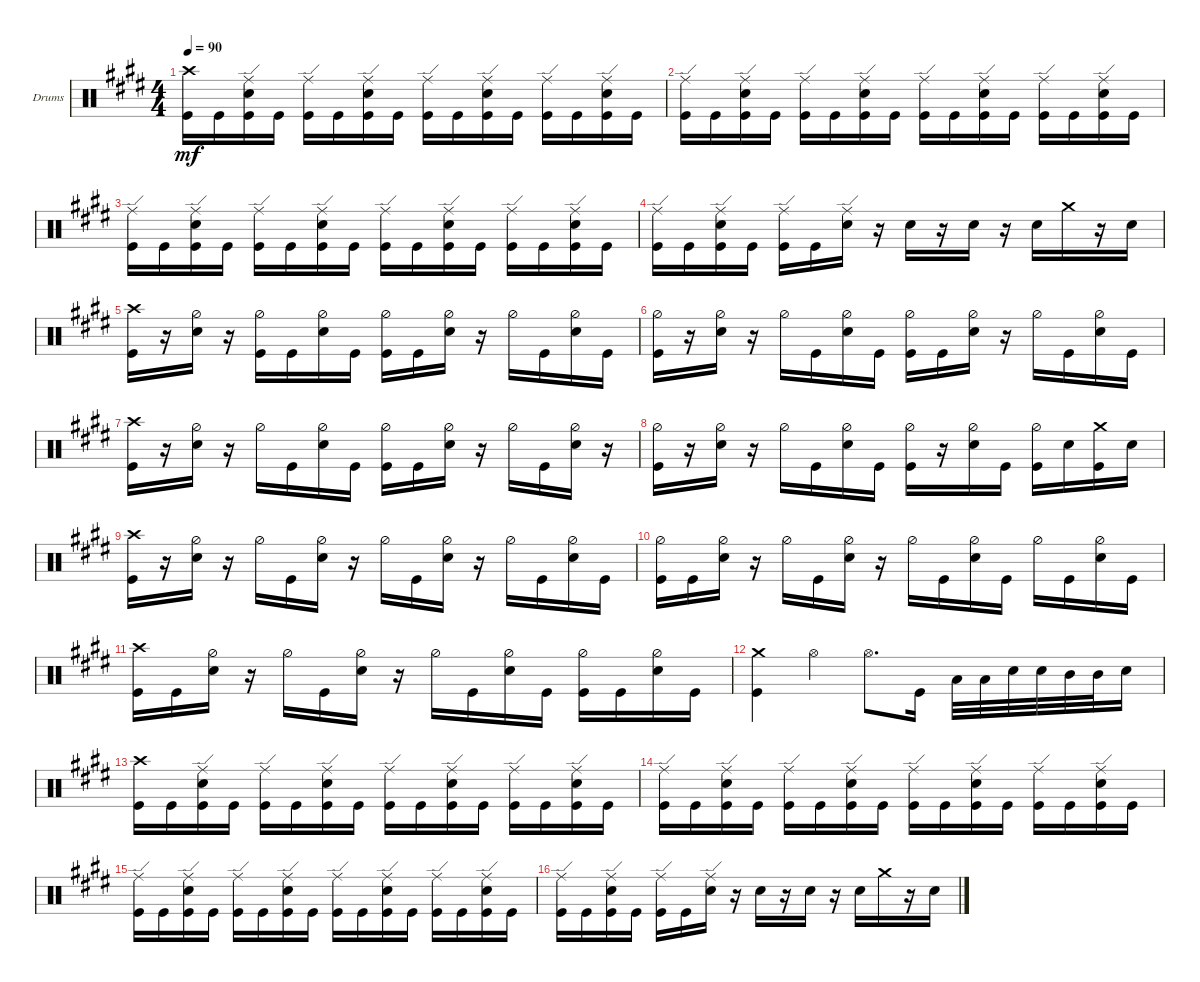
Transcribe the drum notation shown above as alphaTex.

\defaultSystemsLayout 4
\bracketExtendMode groupsimilarinstruments
\firstSystemTrackNameOrientation horizontal
\otherSystemsTrackNameOrientation horizontal
\track ("Drumkit" "Drums") {instrument percussion}
\staff {score}
\articulation defaults
\ts (4 4)
\tempo 90
\clef neutral
\ks e
("Kick (hit)" "Crash high (hit)").16{dy mf} "Kick (hit)".16 ("Snare (hit) 2" "Ride (edge)" "Kick (hit)").16 "Kick (hit)".16 ("Kick (hit)" "Ride (edge)").16 "Kick (hit)".16 ("Snare (hit) 2" "Ride (edge)" "Kick (hit)").16 "Kick (hit)".16 ("Kick (hit)" "Ride (edge)").16 "Kick (hit)".16 ("Snare (hit) 2" "Ride (edge)" "Kick (hit)").16 "Kick (hit)".16 ("Kick (hit)" "Ride (edge)").16 "Kick (hit)".16 ("Snare (hit) 2" "Ride (edge)" "Kick (hit)").16 "Kick (hit)".16 |
("Kick (hit)" "Ride (edge)").16 "Kick (hit)".16 ("Snare (hit) 2" "Ride (edge)" "Kick (hit)").16 "Kick (hit)".16 ("Kick (hit)" "Ride (edge)").16 "Kick (hit)".16 ("Snare (hit) 2" "Ride (edge)" "Kick (hit)").16 "Kick (hit)".16 ("Kick (hit)" "Ride (edge)").16 "Kick (hit)".16 ("Snare (hit) 2" "Ride (edge)" "Kick (hit)").16 "Kick (hit)".16 ("Kick (hit)" "Ride (edge)").16 "Kick (hit)".16 ("Snare (hit) 2" "Ride (edge)" "Kick (hit)").16 "Kick (hit)".16 |
\scale
0.549342 ("Kick (hit)" "Ride (edge)").16 "Kick (hit)".16 ("Snare (hit) 2" "Ride (edge)" "Kick (hit)").16 "Kick (hit)".16 ("Kick (hit)" "Ride (edge)").16 "Kick (hit)".16 ("Snare (hit) 2" "Ride (edge)" "Kick (hit)").16 "Kick (hit)".16 ("Kick (hit)" "Ride (edge)").16 "Kick (hit)".16 ("Snare (hit) 2" "Ride (edge)" "Kick (hit)").16 "Kick (hit)".16 ("Kick (hit)" "Ride (edge)").16 "Kick (hit)".16 ("Snare (hit) 2" "Ride (edge)" "Kick (hit)").16 "Kick (hit)".16 |
\scale
0.450658 ("Kick (hit)" "Ride (edge)").16 "Kick (hit)".16 ("Snare (hit) 2" "Ride (edge)" "Kick (hit)").16 "Kick (hit)".16 ("Kick (hit)" "Ride (edge)").16 "Kick (hit)".16 ("Snare (hit) 2" "Ride (edge)").16 r.16 "Snare (hit) 2".16 r.16 "Snare (hit) 2".16 r.16 "Snare (hit) 2".16 "Crash medium (hit)".16 r.16 "Snare (hit) 2".16 |
("Crash high (hit)" "Kick (hit)").16 r.16 ("Snare (hit) 2" "Hi-Hat (half)").16 r.16 ("Kick (hit)" "Hi-Hat (half)").16 "Kick (hit)".16 ("Snare (hit) 2" "Hi-Hat (half)").16 "Kick (hit)".16 ("Kick (hit)" "Hi-Hat (half)").16 "Kick (hit)".16 ("Snare (hit) 2" "Hi-Hat (half)").16 r.16 "Hi-Hat (half)".16 "Kick (hit)".16 ("Snare (hit) 2" "Hi-Hat (half)").16 "Kick (hit)".16 |
("Kick (hit)" "Hi-Hat (half)").16 r.16 ("Snare (hit) 2" "Hi-Hat (half)").16 r.16 "Hi-Hat (half)".16 "Kick (hit)".16 ("Snare (hit) 2" "Hi-Hat (half)").16 "Kick (hit)".16 ("Kick (hit)" "Hi-Hat (half)").16 "Kick (hit)".16 ("Snare (hit) 2" "Hi-Hat (half)").16 r.16 "Hi-Hat (half)".16 "Kick (hit)".16 ("Snare (hit) 2" "Hi-Hat (half)").16 "Kick (hit)".16 |
("Kick (hit)" "Crash high (hit)").16 r.16 ("Snare (hit) 2" "Hi-Hat (half)").16 r.16 "Hi-Hat (half)".16 "Kick (hit)".16 ("Snare (hit) 2" "Hi-Hat (half)").16 "Kick (hit)".16 ("Kick (hit)" "Hi-Hat (half)").16 "Kick (hit)".16 ("Snare (hit) 2" "Hi-Hat (half)").16 r.16 "Hi-Hat (half)".16 "Kick (hit)".16 ("Snare (hit) 2" "Hi-Hat (half)").16 r.16 |
("Kick (hit)" "Hi-Hat (half)").16 r.16 ("Snare (hit) 2" "Hi-Hat (half)").16 r.16 "Hi-Hat (half)".16 "Kick (hit)".16 ("Snare (hit) 2" "Hi-Hat (half)").16 "Kick (hit)".16 ("Kick (hit)" "Hi-Hat (half)").16 r.16 ("Snare (hit) 2" "Hi-Hat (half)").16 "Kick (hit)".16 ("Kick (hit)" "Hi-Hat (half)").16 "Snare (hit) 2".16 ("Kick (hit)" "Crash medium (hit)").16 "Snare (hit) 2".16 |
("Kick (hit)" "Crash high (hit)").16 r.16 ("Snare (hit) 2" "Hi-Hat (half)").16 r.16 "Hi-Hat (half)".16 "Kick (hit)".16 ("Snare (hit) 2" "Hi-Hat (half)").16 r.16 "Hi-Hat (half)".16 "Kick (hit)".16 ("Snare (hit) 2" "Hi-Hat (half)").16 r.16 "Hi-Hat (half)".16 "Kick (hit)".16 ("Snare (hit) 2" "Hi-Hat (half)").16 "Kick (hit)".16 |
("Kick (hit)" "Hi-Hat (half)").16 "Kick (hit)".16 ("Snare (hit) 2" "Hi-Hat (half)").16 r.16 "Hi-Hat (half)".16 "Kick (hit)".16 ("Snare (hit) 2" "Hi-Hat (half)").16 r.16 "Hi-Hat (half)".16 "Kick (hit)".16 ("Snare (hit) 2" "Hi-Hat (half)").16 "Kick (hit)".16 "Hi-Hat (half)".16 "Kick (hit)".16 ("Snare (hit) 2" "Hi-Hat (half)").16 "Kick (hit)".16 |
("Kick (hit)" "Crash high (hit)").16 "Kick (hit)".16 ("Snare (hit) 2" "Hi-Hat (half)").16 r.16 "Hi-Hat (half)".16 "Kick (hit)".16 ("Snare (hit) 2" "Hi-Hat (half)").16 r.16 "Hi-Hat (half)".16 "Kick (hit)".16 ("Snare (hit) 2" "Hi-Hat (half)").16 "Kick (hit)".16 ("Kick (hit)" "Hi-Hat (half)").16 "Kick (hit)".16 ("Snare (hit) 2" "Hi-Hat (half)").16 "Kick (hit)".16 |
("Kick (hit)" "Crash medium (hit)").4 "Hi-Hat (open)".4 "Hi-Hat (open)".8{d} "Kick (hit)".16 "Low Tom (hit)".32 "Low Tom (hit)".32 "Snare (hit) 2".32 "Snare (hit) 2".32 "Mid Tom (hit)".32 "Mid Tom (hit)".32 "Snare (hit) 2".16 |
("Kick (hit)" "Crash high (hit)").16 "Kick (hit)".16 ("Snare (hit) 2" "Ride (edge)" "Kick (hit)").16 "Kick (hit)".16 ("Kick (hit)" "Ride (edge)").16 "Kick (hit)".16 ("Snare (hit) 2" "Ride (edge)" "Kick (hit)").16 "Kick (hit)".16 ("Kick (hit)" "Ride (edge)").16 "Kick (hit)".16 ("Snare (hit) 2" "Ride (edge)" "Kick (hit)").16 "Kick (hit)".16 ("Kick (hit)" "Ride (edge)").16 "Kick (hit)".16 ("Snare (hit) 2" "Ride (edge)" "Kick (hit)").16 "Kick (hit)".16 |
("Kick (hit)" "Ride (edge)").16 "Kick (hit)".16 ("Snare (hit) 2" "Ride (edge)" "Kick (hit)").16 "Kick (hit)".16 ("Kick (hit)" "Ride (edge)").16 "Kick (hit)".16 ("Snare (hit) 2" "Ride (edge)" "Kick (hit)").16 "Kick (hit)".16 ("Kick (hit)" "Ride (edge)").16 "Kick (hit)".16 ("Snare (hit) 2" "Ride (edge)" "Kick (hit)").16 "Kick (hit)".16 ("Kick (hit)" "Ride (edge)").16 "Kick (hit)".16 ("Snare (hit) 2" "Ride (edge)" "Kick (hit)").16 "Kick (hit)".16 |
("Kick (hit)" "Ride (edge)").16 "Kick (hit)".16 ("Snare (hit) 2" "Ride (edge)" "Kick (hit)").16 "Kick (hit)".16 ("Kick (hit)" "Ride (edge)").16 "Kick (hit)".16 ("Snare (hit) 2" "Ride (edge)" "Kick (hit)").16 "Kick (hit)".16 ("Kick (hit)" "Ride (edge)").16 "Kick (hit)".16 ("Snare (hit) 2" "Ride (edge)" "Kick (hit)").16 "Kick (hit)".16 ("Kick (hit)" "Ride (edge)").16 "Kick (hit)".16 ("Snare (hit) 2" "Ride (edge)" "Kick (hit)").16 "Kick (hit)".16 |
\scale
0.543897 ("Kick (hit)" "Ride (edge)").16 "Kick (hit)".16 ("Snare (hit) 2" "Ride (edge)" "Kick (hit)").16 "Kick (hit)".16 ("Kick (hit)" "Ride (edge)").16 "Kick (hit)".16 ("Snare (hit) 2" "Ride (edge)").16 r.16 "Snare (hit) 2".16 r.16 "Snare (hit) 2".16 r.16 "Snare (hit) 2".16 "Crash medium (hit)".16 r.16 "Snare (hit) 2".16
